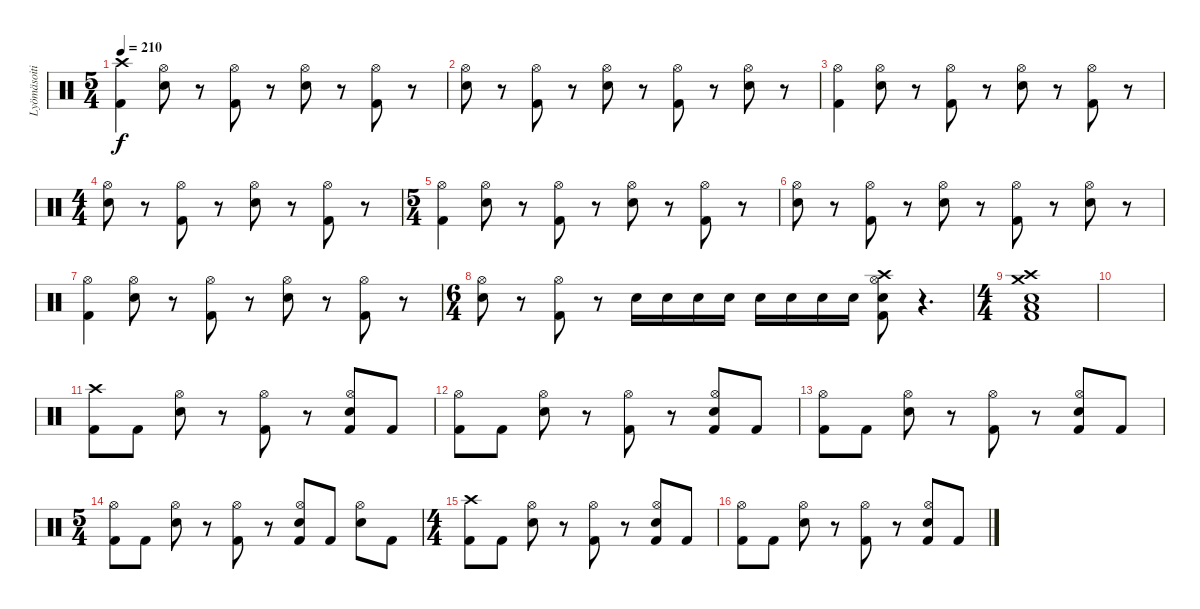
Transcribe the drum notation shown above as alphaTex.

\track ("Lyömäsoitin" "Lyömäsoiti") {instrument percussion}
\staff {score}
\articulation defaults
\ts (5 4)
\tempo 210
\clef neutral
\ks c
("Crash high (hit)" "Kick (hit) 2").4{dy f} ("Hi-Hat (open)" "Electric Snare (hit)").8 r.8 ("Hi-Hat (open)" "Kick (hit) 2").8 r.8 ("Hi-Hat (open)" "Electric Snare (hit)").8 r.8 ("Hi-Hat (open)" "Kick (hit) 2").8 r.8 |
("Hi-Hat (open)" "Electric Snare (hit)").8 r.8 ("Hi-Hat (open)" "Kick (hit) 2").8 r.8 ("Hi-Hat (open)" "Electric Snare (hit)").8 r.8 ("Hi-Hat (open)" "Kick (hit) 2").8 r.8 ("Hi-Hat (open)" "Electric Snare (hit)").8 r.8 |
("Hi-Hat (open)" "Kick (hit) 2").4 ("Hi-Hat (open)" "Electric Snare (hit)").8 r.8 ("Hi-Hat (open)" "Kick (hit) 2").8 r.8 ("Hi-Hat (open)" "Electric Snare (hit)").8 r.8 ("Hi-Hat (open)" "Kick (hit) 2").8 r.8 |
\ts (4 4)
("Hi-Hat (open)" "Electric Snare (hit)").8 r.8 ("Hi-Hat (open)" "Kick (hit) 2").8 r.8 ("Hi-Hat (open)" "Electric Snare (hit)").8 r.8 ("Hi-Hat (open)" "Kick (hit) 2").8 r.8 |
\ts (5 4)
("Hi-Hat (open)" "Kick (hit) 2").4 ("Hi-Hat (open)" "Electric Snare (hit)").8 r.8 ("Hi-Hat (open)" "Kick (hit) 2").8 r.8 ("Hi-Hat (open)" "Electric Snare (hit)").8 r.8 ("Hi-Hat (open)" "Kick (hit) 2").8 r.8 |
("Hi-Hat (open)" "Electric Snare (hit)").8 r.8 ("Hi-Hat (open)" "Kick (hit) 2").8 r.8 ("Hi-Hat (open)" "Electric Snare (hit)").8 r.8 ("Hi-Hat (open)" "Kick (hit) 2").8 r.8 ("Hi-Hat (open)" "Electric Snare (hit)").8 r.8 |
("Hi-Hat (open)" "Kick (hit) 2").4 ("Hi-Hat (open)" "Electric Snare (hit)").8 r.8 ("Hi-Hat (open)" "Kick (hit) 2").8 r.8 ("Hi-Hat (open)" "Electric Snare (hit)").8 r.8 ("Hi-Hat (open)" "Kick (hit) 2").8 r.8 |
\ts (6 4)
("Hi-Hat (open)" "Electric Snare (hit)").8 r.8 ("Hi-Hat (open)" "Kick (hit) 2").8 r.8 "Electric Snare (hit)".16 "Electric Snare (hit)".16 "Electric Snare (hit)".16 "Electric Snare (hit)".16 "Electric Snare (hit)".16 "Electric Snare (hit)".16 "Electric Snare (hit)".16 "Electric Snare (hit)".16 ("Crash high (hit)" "Hi-Hat (open)" "Electric Snare (hit)" "Kick (hit) 2").8 r.4{d} |
\ts (4 4)
("Crash high (hit)" "Crash medium (hit)" "Electric Snare (hit)" "Low Floor Tom (hit)" "Kick (hit) 2").1 |
|
("Crash high (hit)" "Kick (hit) 2").8 "Kick (hit) 2".8 ("Hi-Hat (open)" "Electric Snare (hit)").8 r.8 ("Hi-Hat (open)" "Kick (hit) 2").8 r.8 ("Hi-Hat (open)" "Electric Snare (hit)" "Kick (hit) 2").8 "Kick (hit) 2".8 |
("Hi-Hat (open)" "Kick (hit) 2").8 "Kick (hit) 2".8 ("Hi-Hat (open)" "Electric Snare (hit)").8 r.8 ("Hi-Hat (open)" "Kick (hit) 2").8 r.8 ("Hi-Hat (open)" "Electric Snare (hit)" "Kick (hit) 2").8 "Kick (hit) 2".8 |
("Hi-Hat (open)" "Kick (hit) 2").8 "Kick (hit) 2".8 ("Hi-Hat (open)" "Electric Snare (hit)").8 r.8 ("Hi-Hat (open)" "Kick (hit) 2").8 r.8 ("Hi-Hat (open)" "Electric Snare (hit)" "Kick (hit) 2").8 "Kick (hit) 2".8 |
\ts (5 4)
("Hi-Hat (open)" "Kick (hit) 2").8 "Kick (hit) 2".8 ("Hi-Hat (open)" "Electric Snare (hit)").8 r.8 ("Hi-Hat (open)" "Kick (hit) 2").8 r.8 ("Hi-Hat (open)" "Electric Snare (hit)" "Kick (hit) 2").8 "Kick (hit) 2".8 ("Hi-Hat (open)" "Electric Snare (hit)").8 "Kick (hit) 2".8 |
\ts (4 4)
("Crash high (hit)" "Kick (hit) 2").8 "Kick (hit) 2".8 ("Hi-Hat (open)" "Electric Snare (hit)").8 r.8 ("Hi-Hat (open)" "Kick (hit) 2").8 r.8 ("Hi-Hat (open)" "Electric Snare (hit)" "Kick (hit) 2").8 "Kick (hit) 2".8 |
("Hi-Hat (open)" "Kick (hit) 2").8 "Kick (hit) 2".8 ("Hi-Hat (open)" "Electric Snare (hit)").8 r.8 ("Hi-Hat (open)" "Kick (hit) 2").8 r.8 ("Hi-Hat (open)" "Electric Snare (hit)" "Kick (hit) 2").8 "Kick (hit) 2".8
